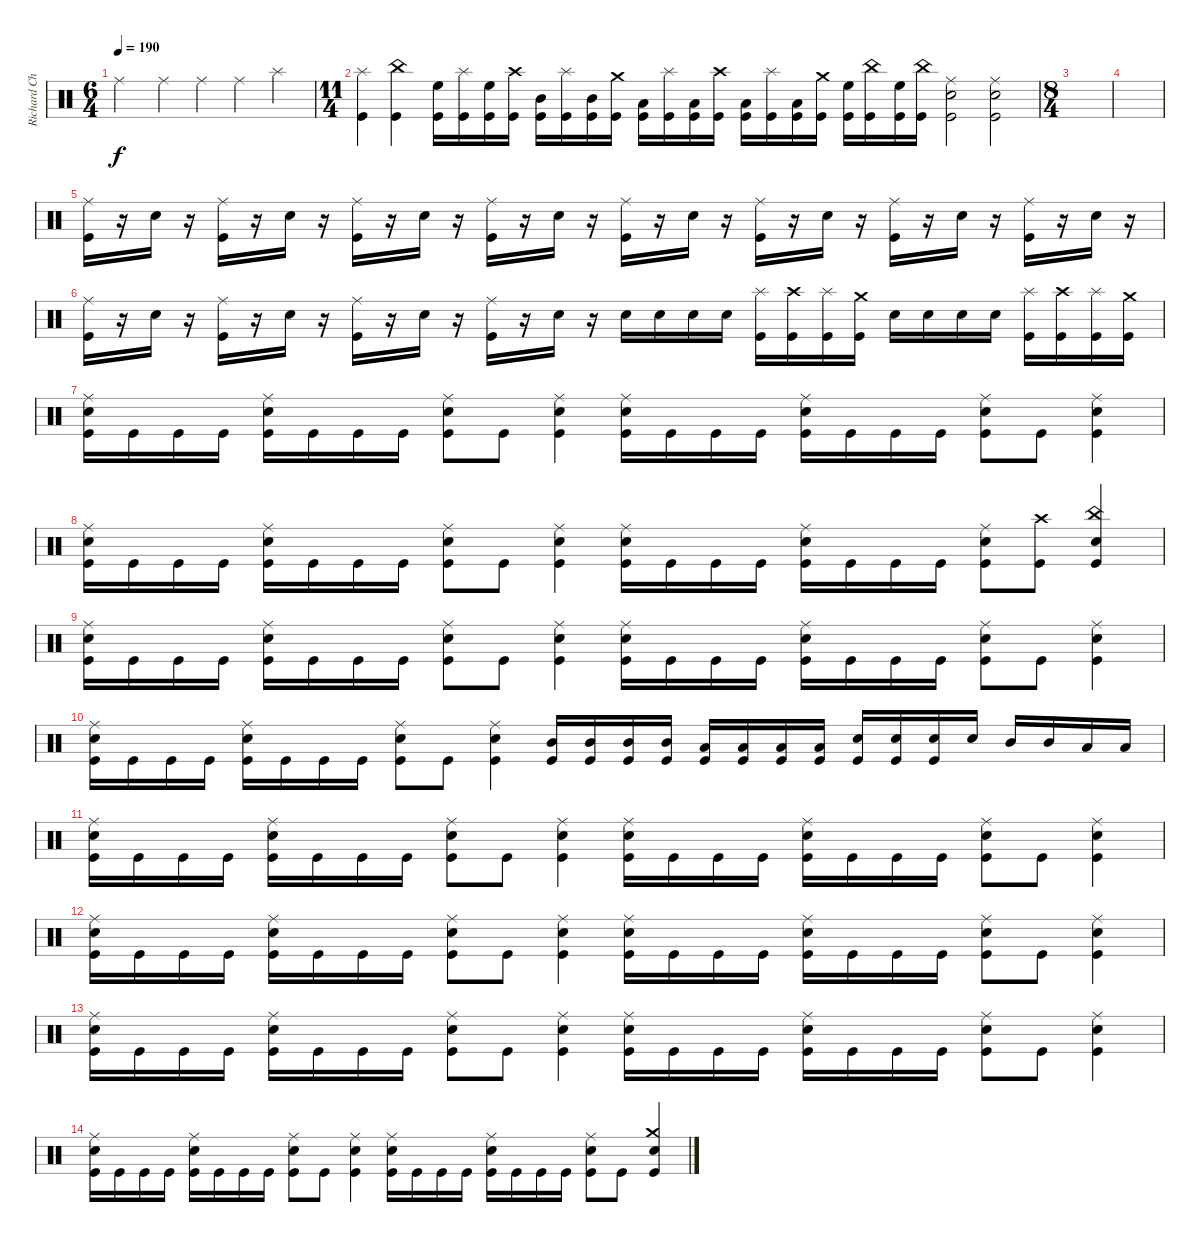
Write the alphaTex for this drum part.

\track ("Richard Christy" "Richard Ch") {instrument percussion}
\staff {score}
\articulation defaults
\ts (6 4)
\tempo 190
\clef neutral
\ks c "Ride (middle)".2{dy f} "Ride (middle)".4 "Ride (middle)".4 "Ride (middle)".4 "Splash (hit)".4
|
\ts (11 4)
("Splash (hit)" "Kick (hit)").4 ("China (hit)" "Kick (hit)").4 ("High Floor Tom (hit)" "Kick (hit)").16 ("Splash (hit)" "Kick (hit)").16 ("High Floor Tom (hit)" "Kick (hit)").16 ("Crash high (hit)" "Kick (hit)").16 ("Mid Tom (hit)" "Kick (hit)").16 ("Splash (hit)" "Kick (hit)").16 ("Mid Tom (hit)" "Kick (hit)").16 ("Crash medium (hit)" "Kick (hit)").16 ("Low Tom (hit)" "Kick (hit)").16 ("Splash (hit)" "Kick (hit)").16 ("Low Tom (hit)" "Kick (hit)").16 ("Crash high (hit)" "Kick (hit)").16 ("Low Floor Tom (hit)" "Kick (hit)").16 ("Splash (hit)" "Kick (hit)").16 ("Low Floor Tom (hit)" "Kick (hit)").16 ("Crash medium (hit)" "Kick (hit)").16 ("High Floor Tom (hit)" "Kick (hit)").16 ("China (hit)" "Kick (hit)").16 ("High Floor Tom (hit)" "Kick (hit)").16 ("China (hit)" "Kick (hit)").16 ("Ride (middle)" "Electric Snare (hit)" "Kick (hit)").2 ("Ride (middle)" "Electric Snare (hit)" "Kick (hit)").2 |
\ts (8 4)
|
|
("Ride (middle)" "Kick (hit)").16 r.16 "Electric Snare (hit)".16 r.16 ("Ride (middle)" "Kick (hit)").16 r.16 "Electric Snare (hit)".16 r.16 ("Ride (middle)" "Kick (hit)").16 r.16 "Electric Snare (hit)".16 r.16 ("Ride (middle)" "Kick (hit)").16 r.16 "Electric Snare (hit)".16 r.16 ("Ride (middle)" "Kick (hit)").16 r.16 "Electric Snare (hit)".16 r.16 ("Ride (middle)" "Kick (hit)").16 r.16 "Electric Snare (hit)".16 r.16 ("Ride (middle)" "Kick (hit)").16 r.16 "Electric Snare (hit)".16 r.16 ("Ride (middle)" "Kick (hit)").16 r.16 "Electric Snare (hit)".16 r.16 |
("Ride (middle)" "Kick (hit)").16 r.16 "Electric Snare (hit)".16 r.16 ("Ride (middle)" "Kick (hit)").16 r.16 "Electric Snare (hit)".16 r.16 ("Ride (middle)" "Kick (hit)").16 r.16 "Electric Snare (hit)".16 r.16 ("Ride (middle)" "Kick (hit)").16 r.16 "Electric Snare (hit)".16 r.16 "Electric Snare (hit)".16 "Electric Snare (hit)".16 "Electric Snare (hit)".16 "Electric Snare (hit)".16 ("Splash (hit)" "Kick (hit)").16 ("Crash high (hit)" "Kick (hit)").16 ("Splash (hit)" "Kick (hit)").16 ("Crash medium (hit)" "Kick (hit)").16 "Electric Snare (hit)".16 "Electric Snare (hit)".16 "Electric Snare (hit)".16 "Electric Snare (hit)".16 ("Splash (hit)" "Kick (hit)").16 ("Crash high (hit)" "Kick (hit)").16 ("Splash (hit)" "Kick (hit)").16 ("Crash medium (hit)" "Kick (hit)").16 |
("Ride (middle)" "Electric Snare (hit)" "Kick (hit)").16 "Kick (hit)".16 "Kick (hit)".16 "Kick (hit)".16 ("Ride (middle)" "Electric Snare (hit)" "Kick (hit)").16 "Kick (hit)".16 "Kick (hit)".16 "Kick (hit)".16 ("Ride (middle)" "Electric Snare (hit)" "Kick (hit)").8 "Kick (hit)".8 ("Ride (middle)" "Electric Snare (hit)" "Kick (hit)").4 ("Ride (middle)" "Electric Snare (hit)" "Kick (hit)").16 "Kick (hit)".16 "Kick (hit)".16 "Kick (hit)".16 ("Ride (middle)" "Electric Snare (hit)" "Kick (hit)").16 "Kick (hit)".16 "Kick (hit)".16 "Kick (hit)".16 ("Ride (middle)" "Electric Snare (hit)" "Kick (hit)").8 "Kick (hit)".8 ("Ride (middle)" "Electric Snare (hit)" "Kick (hit)").4 |
("Ride (middle)" "Electric Snare (hit)" "Kick (hit)").16 "Kick (hit)".16 "Kick (hit)".16 "Kick (hit)".16 ("Ride (middle)" "Electric Snare (hit)" "Kick (hit)").16 "Kick (hit)".16 "Kick (hit)".16 "Kick (hit)".16 ("Ride (middle)" "Electric Snare (hit)" "Kick (hit)").8 "Kick (hit)".8 ("Ride (middle)" "Electric Snare (hit)" "Kick (hit)").4 ("Ride (middle)" "Electric Snare (hit)" "Kick (hit)").16 "Kick (hit)".16 "Kick (hit)".16 "Kick (hit)".16 ("Ride (middle)" "Electric Snare (hit)" "Kick (hit)").16 "Kick (hit)".16 "Kick (hit)".16 "Kick (hit)".16 ("Ride (middle)" "Electric Snare (hit)" "Kick (hit)").8 ("Crash high (hit)" "Kick (hit)").8 ("China (hit)" "Electric Snare (hit)" "Kick (hit)").4 |
("Ride (middle)" "Electric Snare (hit)" "Kick (hit)").16 "Kick (hit)".16 "Kick (hit)".16 "Kick (hit)".16 ("Ride (middle)" "Electric Snare (hit)" "Kick (hit)").16 "Kick (hit)".16 "Kick (hit)".16 "Kick (hit)".16 ("Ride (middle)" "Electric Snare (hit)" "Kick (hit)").8 "Kick (hit)".8 ("Ride (middle)" "Electric Snare (hit)" "Kick (hit)").4 ("Ride (middle)" "Electric Snare (hit)" "Kick (hit)").16 "Kick (hit)".16 "Kick (hit)".16 "Kick (hit)".16 ("Ride (middle)" "Electric Snare (hit)" "Kick (hit)").16 "Kick (hit)".16 "Kick (hit)".16 "Kick (hit)".16 ("Ride (middle)" "Electric Snare (hit)" "Kick (hit)").8 "Kick (hit)".8 ("Ride (middle)" "Electric Snare (hit)" "Kick (hit)").4 |
("Ride (middle)" "Electric Snare (hit)" "Kick (hit)").16 "Kick (hit)".16 "Kick (hit)".16 "Kick (hit)".16 ("Ride (middle)" "Electric Snare (hit)" "Kick (hit)").16 "Kick (hit)".16 "Kick (hit)".16 "Kick (hit)".16 ("Ride (middle)" "Electric Snare (hit)" "Kick (hit)").8 "Kick (hit)".8 ("Ride (middle)" "Electric Snare (hit)" "Kick (hit)").4 ("Mid Tom (hit)" "Kick (hit)").16 ("Mid Tom (hit)" "Kick (hit)").16 ("Mid Tom (hit)" "Kick (hit)").16 ("Mid Tom (hit)" "Kick (hit)").16 ("Low Tom (hit)" "Kick (hit)").16 ("Low Tom (hit)" "Kick (hit)").16 ("Low Tom (hit)" "Kick (hit)").16 ("Low Tom (hit)" "Kick (hit)").16 ("Electric Snare (hit)" "Kick (hit)").16 ("Electric Snare (hit)" "Kick (hit)").16 ("Electric Snare (hit)" "Kick (hit)").16 "Electric Snare (hit)".16 "Mid Tom (hit)".16 "Mid Tom (hit)".16 "Low Tom (hit)".16 "Low Tom (hit)".16 |
("Ride (middle)" "Electric Snare (hit)" "Kick (hit)").16 "Kick (hit)".16 "Kick (hit)".16 "Kick (hit)".16 ("Ride (middle)" "Electric Snare (hit)" "Kick (hit)").16 "Kick (hit)".16 "Kick (hit)".16 "Kick (hit)".16 ("Ride (middle)" "Electric Snare (hit)" "Kick (hit)").8 "Kick (hit)".8 ("Ride (middle)" "Electric Snare (hit)" "Kick (hit)").4 ("Ride (middle)" "Electric Snare (hit)" "Kick (hit)").16 "Kick (hit)".16 "Kick (hit)".16 "Kick (hit)".16 ("Ride (middle)" "Electric Snare (hit)" "Kick (hit)").16 "Kick (hit)".16 "Kick (hit)".16 "Kick (hit)".16 ("Ride (middle)" "Electric Snare (hit)" "Kick (hit)").8 "Kick (hit)".8 ("Ride (middle)" "Electric Snare (hit)" "Kick (hit)").4 |
("Ride (middle)" "Electric Snare (hit)" "Kick (hit)").16 "Kick (hit)".16 "Kick (hit)".16 "Kick (hit)".16 ("Ride (middle)" "Electric Snare (hit)" "Kick (hit)").16 "Kick (hit)".16 "Kick (hit)".16 "Kick (hit)".16 ("Ride (middle)" "Electric Snare (hit)" "Kick (hit)").8 "Kick (hit)".8 ("Ride (middle)" "Electric Snare (hit)" "Kick (hit)").4 ("Ride (middle)" "Electric Snare (hit)" "Kick (hit)").16 "Kick (hit)".16 "Kick (hit)".16 "Kick (hit)".16 ("Ride (middle)" "Electric Snare (hit)" "Kick (hit)").16 "Kick (hit)".16 "Kick (hit)".16 "Kick (hit)".16 ("Ride (middle)" "Electric Snare (hit)" "Kick (hit)").8 "Kick (hit)".8 ("Ride (middle)" "Electric Snare (hit)" "Kick (hit)").4 |
("Ride (middle)" "Electric Snare (hit)" "Kick (hit)").16 "Kick (hit)".16 "Kick (hit)".16 "Kick (hit)".16 ("Ride (middle)" "Electric Snare (hit)" "Kick (hit)").16 "Kick (hit)".16 "Kick (hit)".16 "Kick (hit)".16 ("Ride (middle)" "Electric Snare (hit)" "Kick (hit)").8 "Kick (hit)".8 ("Ride (middle)" "Electric Snare (hit)" "Kick (hit)").4 ("Ride (middle)" "Electric Snare (hit)" "Kick (hit)").16 "Kick (hit)".16 "Kick (hit)".16 "Kick (hit)".16 ("Ride (middle)" "Electric Snare (hit)" "Kick (hit)").16 "Kick (hit)".16 "Kick (hit)".16 "Kick (hit)".16 ("Ride (middle)" "Electric Snare (hit)" "Kick (hit)").8 "Kick (hit)".8 ("Ride (middle)" "Electric Snare (hit)" "Kick (hit)").4 |
("Ride (middle)" "Electric Snare (hit)" "Kick (hit)").16 "Kick (hit)".16 "Kick (hit)".16 "Kick (hit)".16 ("Ride (middle)" "Electric Snare (hit)" "Kick (hit)").16 "Kick (hit)".16 "Kick (hit)".16 "Kick (hit)".16 ("Ride (middle)" "Electric Snare (hit)" "Kick (hit)").8 "Kick (hit)".8 ("Ride (middle)" "Electric Snare (hit)" "Kick (hit)").4 ("Ride (middle)" "Electric Snare (hit)" "Kick (hit)").16 "Kick (hit)".16 "Kick (hit)".16 "Kick (hit)".16 ("Ride (middle)" "Electric Snare (hit)" "Kick (hit)").16 "Kick (hit)".16 "Kick (hit)".16 "Kick (hit)".16 ("Ride (middle)" "Electric Snare (hit)" "Kick (hit)").8 "Kick (hit)".8 ("Crash medium (hit)" "Electric Snare (hit)" "Kick (hit)").4
